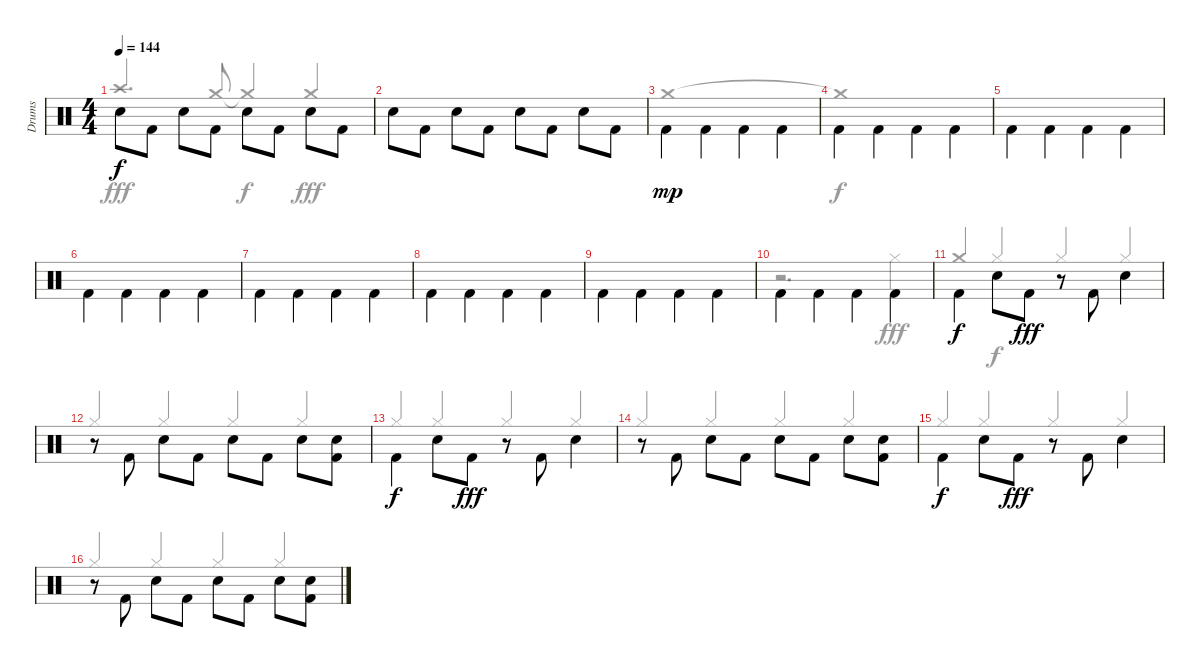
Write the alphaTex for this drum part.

\track ("Drums" "Drums") {instrument percussion}
\staff {score}
\articulation defaults
\voice
\ts (4 4)
\tempo 144
\clef neutral
\ks c "Snare (hit) 2".8{dy f beam Down} "Kick (hit) 2".8{beam Down} "Snare (hit) 2".8{beam Down} "Kick (hit) 2".8{beam Down} "Snare (hit) 2".8{beam Down} "Kick (hit) 2".8{beam Down} "Snare (hit) 2".8{beam Down} "Kick (hit) 2".8{beam Down}
|
"Snare (hit) 2".8{beam Down} "Kick (hit) 2".8{beam Down} "Snare (hit) 2".8{beam Down} "Kick (hit) 2".8{beam Down} "Snare (hit) 2".8{beam Down} "Kick (hit) 2".8{beam Down} "Snare (hit) 2".8{beam Down} "Kick (hit) 2".8{beam Down} |
"Kick (hit) 2".4{dy mp beam Down} "Kick (hit) 2".4{beam Down} "Kick (hit) 2".4{beam Down} "Kick (hit) 2".4{beam Down} |
"Kick (hit) 2".4{beam Down} "Kick (hit) 2".4{beam Down} "Kick (hit) 2".4{beam Down} "Kick (hit) 2".4{beam Down} |
"Kick (hit) 2".4{beam Down} "Kick (hit) 2".4{beam Down} "Kick (hit) 2".4{beam Down} "Kick (hit) 2".4{beam Down} |
"Kick (hit) 2".4{beam Down} "Kick (hit) 2".4{beam Down} "Kick (hit) 2".4{beam Down} "Kick (hit) 2".4{beam Down} |
"Kick (hit) 2".4{beam Down} "Kick (hit) 2".4{beam Down} "Kick (hit) 2".4{beam Down} "Kick (hit) 2".4{beam Down} |
"Kick (hit) 2".4{beam Down} "Kick (hit) 2".4{beam Down} "Kick (hit) 2".4{beam Down} "Kick (hit) 2".4{beam Down} |
"Kick (hit) 2".4{beam Down} "Kick (hit) 2".4{beam Down} "Kick (hit) 2".4{beam Down} "Kick (hit) 2".4{beam Down} |
"Kick (hit) 2".4{beam Down} "Kick (hit) 2".4{beam Down} "Kick (hit) 2".4{beam Down} "Kick (hit) 2".4{beam Down} |
"Kick (hit) 2".4{dy f beam Down} "Snare (hit) 2".8{beam Down} "Kick (hit) 2".8{dy fff beam Down} r.8 "Kick (hit) 2".8{beam Down} "Snare (hit) 2".4{beam Down} |
r.8 "Kick (hit) 2".8{beam Down} "Snare (hit) 2".8{beam Down} "Kick (hit) 2".8{beam Down} "Snare (hit) 2".8{beam Down} "Kick (hit) 2".8{beam Down} "Snare (hit) 2".8{beam Down} ("Snare (hit) 2" "Kick (hit) 2").8{beam Down} |
"Kick (hit) 2".4{dy f beam Down} "Snare (hit) 2".8{beam Down} "Kick (hit) 2".8{dy fff beam Down} r.8 "Kick (hit) 2".8{beam Down} "Snare (hit) 2".4{beam Down} |
r.8 "Kick (hit) 2".8{beam Down} "Snare (hit) 2".8{beam Down} "Kick (hit) 2".8{beam Down} "Snare (hit) 2".8{beam Down} "Kick (hit) 2".8{beam Down} "Snare (hit) 2".8{beam Down} ("Snare (hit) 2" "Kick (hit) 2").8{beam Down} |
"Kick (hit) 2".4{dy f beam Down} "Snare (hit) 2".8{beam Down} "Kick (hit) 2".8{dy fff beam Down} r.8 "Kick (hit) 2".8{beam Down} "Snare (hit) 2".4{beam Down} |
r.8 "Kick (hit) 2".8{beam Down} "Snare (hit) 2".8{beam Down} "Kick (hit) 2".8{beam Down} "Snare (hit) 2".8{beam Down} "Kick (hit) 2".8{beam Down} "Snare (hit) 2".8{beam Down} ("Snare (hit) 2" "Kick (hit) 2").8{beam Down}
\voice
\clef neutral
\ottava regular
\simile none
\ks c "Crash high (hit)".4{d dy fff beam Up} "Crash medium (hit)".8{beam Up} "Crash medium (hit)"{t}.4{dy f beam Up} "Crash medium (hit)".4{dy fff beam Up}
|
|
"Crash medium (hit)".1 |
"Crash medium (hit)"{t}.1{dy f} |
|
|
|
|
|
r.2{d} "Hi-Hat (closed)".4{dy fff} |
"Crash medium (hit)".4{beam Up} "Hi-Hat (closed)".4{dy f beam Up} "Hi-Hat (closed)".4{beam Up} "Hi-Hat (closed)".4{beam Up} |
"Hi-Hat (closed)".4{beam Up} "Hi-Hat (closed)".4{beam Up} "Hi-Hat (closed)".4{beam Up} "Hi-Hat (closed)".4{beam Up} |
"Hi-Hat (closed)".4{beam Up} "Hi-Hat (closed)".4{beam Up} "Hi-Hat (closed)".4{beam Up} "Hi-Hat (closed)".4{beam Up} |
"Hi-Hat (closed)".4{beam Up} "Hi-Hat (closed)".4{beam Up} "Hi-Hat (closed)".4{beam Up} "Hi-Hat (closed)".4{beam Up} |
"Hi-Hat (closed)".4{beam Up} "Hi-Hat (closed)".4{beam Up} "Hi-Hat (closed)".4{beam Up} "Hi-Hat (closed)".4{beam Up} |
"Hi-Hat (closed)".4{beam Up} "Hi-Hat (closed)".4{beam Up} "Hi-Hat (closed)".4{beam Up} "Hi-Hat (closed)".4{beam Up}
